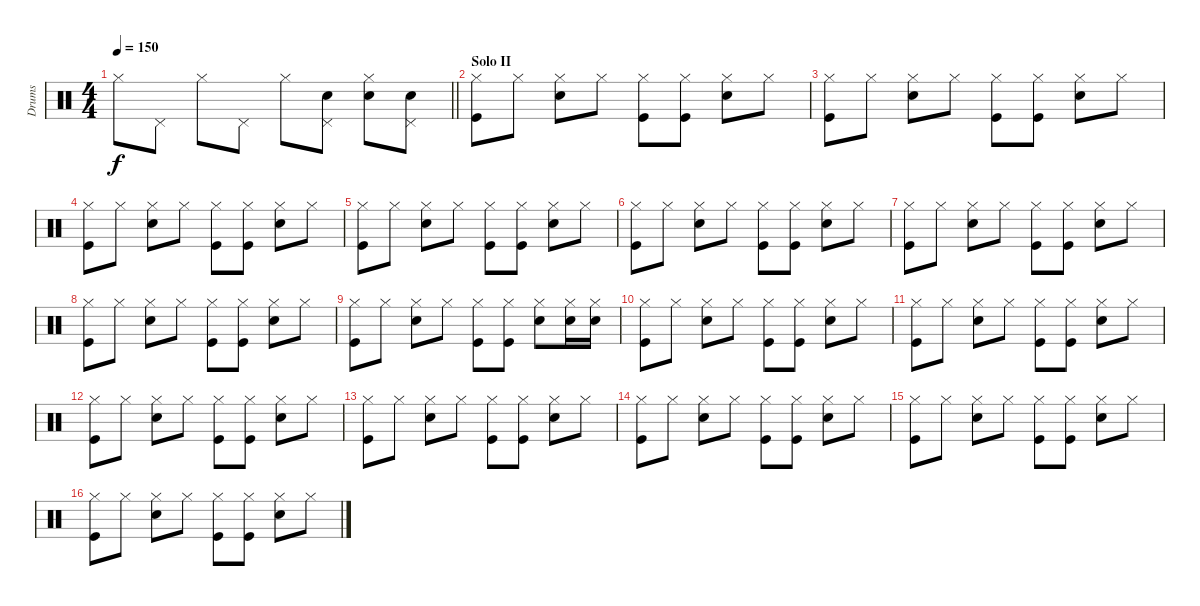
\track ("Drums" "Drums") {instrument percussion}
\staff {score}
\articulation defaults
\ts (4 4)
\tempo 150
\clef neutral
\barLineRight lightlight
\ks c "Hi-Hat (closed)".8{dy f} "Pedal Hi-Hat (hit)".8 "Hi-Hat (closed)".8 "Pedal Hi-Hat (hit)".8 "Hi-Hat (closed)".8
("Pedal Hi-Hat (hit)" "Electric Snare (hit)").8 ("Hi-Hat (closed)" "Electric Snare (hit)").8 ("Pedal Hi-Hat (hit)" "Electric Snare (hit)").8 |
\section ("" "Solo II")
("Hi-Hat (closed)" "Kick (hit)").8 "Hi-Hat (closed)".8 ("Hi-Hat (closed)" "Electric Snare (hit)").8 "Hi-Hat (closed)".8 ("Hi-Hat (closed)" "Kick (hit)").8 ("Hi-Hat (closed)" "Kick (hit)").8 ("Hi-Hat (closed)" "Electric Snare (hit)").8 "Hi-Hat (closed)".8 |
("Hi-Hat (closed)" "Kick (hit)").8 "Hi-Hat (closed)".8 ("Hi-Hat (closed)" "Electric Snare (hit)").8 "Hi-Hat (closed)".8 ("Hi-Hat (closed)" "Kick (hit)").8 ("Hi-Hat (closed)" "Kick (hit)").8 ("Hi-Hat (closed)" "Electric Snare (hit)").8 "Hi-Hat (closed)".8 |
("Hi-Hat (closed)" "Kick (hit)").8 "Hi-Hat (closed)".8 ("Hi-Hat (closed)" "Electric Snare (hit)").8 "Hi-Hat (closed)".8 ("Hi-Hat (closed)" "Kick (hit)").8 ("Hi-Hat (closed)" "Kick (hit)").8 ("Hi-Hat (closed)" "Electric Snare (hit)").8 "Hi-Hat (closed)".8 |
("Hi-Hat (closed)" "Kick (hit)").8 "Hi-Hat (closed)".8 ("Hi-Hat (closed)" "Electric Snare (hit)").8 "Hi-Hat (closed)".8 ("Hi-Hat (closed)" "Kick (hit)").8 ("Hi-Hat (closed)" "Kick (hit)").8 ("Hi-Hat (closed)" "Electric Snare (hit)").8 "Hi-Hat (closed)".8 |
("Hi-Hat (closed)" "Kick (hit)").8 "Hi-Hat (closed)".8 ("Hi-Hat (closed)" "Electric Snare (hit)").8 "Hi-Hat (closed)".8 ("Hi-Hat (closed)" "Kick (hit)").8 ("Hi-Hat (closed)" "Kick (hit)").8 ("Hi-Hat (closed)" "Electric Snare (hit)").8 "Hi-Hat (closed)".8 |
("Hi-Hat (closed)" "Kick (hit)").8 "Hi-Hat (closed)".8 ("Hi-Hat (closed)" "Electric Snare (hit)").8 "Hi-Hat (closed)".8 ("Hi-Hat (closed)" "Kick (hit)").8 ("Hi-Hat (closed)" "Kick (hit)").8 ("Hi-Hat (closed)" "Electric Snare (hit)").8 "Hi-Hat (closed)".8 |
("Hi-Hat (closed)" "Kick (hit)").8 "Hi-Hat (closed)".8 ("Hi-Hat (closed)" "Electric Snare (hit)").8 "Hi-Hat (closed)".8 ("Hi-Hat (closed)" "Kick (hit)").8 ("Hi-Hat (closed)" "Kick (hit)").8 ("Hi-Hat (closed)" "Electric Snare (hit)").8 "Hi-Hat (closed)".8 |
("Hi-Hat (closed)" "Kick (hit)").8 "Hi-Hat (closed)".8 ("Hi-Hat (closed)" "Electric Snare (hit)").8 "Hi-Hat (closed)".8 ("Hi-Hat (closed)" "Kick (hit)").8 ("Hi-Hat (closed)" "Kick (hit)").8 ("Hi-Hat (closed)" "Electric Snare (hit)").8 ("Hi-Hat (closed)" "Electric Snare (hit)").16 ("Hi-Hat (closed)" "Electric Snare (hit)").16 |
("Hi-Hat (closed)" "Kick (hit)").8 "Hi-Hat (closed)".8 ("Hi-Hat (closed)" "Electric Snare (hit)").8 "Hi-Hat (closed)".8 ("Hi-Hat (closed)" "Kick (hit)").8 ("Hi-Hat (closed)" "Kick (hit)").8 ("Hi-Hat (closed)" "Electric Snare (hit)").8 "Hi-Hat (closed)".8 |
("Hi-Hat (closed)" "Kick (hit)").8 "Hi-Hat (closed)".8 ("Hi-Hat (closed)" "Electric Snare (hit)").8 "Hi-Hat (closed)".8 ("Hi-Hat (closed)" "Kick (hit)").8 ("Hi-Hat (closed)" "Kick (hit)").8 ("Hi-Hat (closed)" "Electric Snare (hit)").8 "Hi-Hat (closed)".8 |
("Hi-Hat (closed)" "Kick (hit)").8 "Hi-Hat (closed)".8 ("Hi-Hat (closed)" "Electric Snare (hit)").8 "Hi-Hat (closed)".8 ("Hi-Hat (closed)" "Kick (hit)").8 ("Hi-Hat (closed)" "Kick (hit)").8 ("Hi-Hat (closed)" "Electric Snare (hit)").8 "Hi-Hat (closed)".8 |
("Hi-Hat (closed)" "Kick (hit)").8 "Hi-Hat (closed)".8 ("Hi-Hat (closed)" "Electric Snare (hit)").8 "Hi-Hat (closed)".8 ("Hi-Hat (closed)" "Kick (hit)").8 ("Hi-Hat (closed)" "Kick (hit)").8 ("Hi-Hat (closed)" "Electric Snare (hit)").8 "Hi-Hat (closed)".8 |
("Hi-Hat (closed)" "Kick (hit)").8 "Hi-Hat (closed)".8 ("Hi-Hat (closed)" "Electric Snare (hit)").8 "Hi-Hat (closed)".8 ("Hi-Hat (closed)" "Kick (hit)").8 ("Hi-Hat (closed)" "Kick (hit)").8 ("Hi-Hat (closed)" "Electric Snare (hit)").8 "Hi-Hat (closed)".8 |
("Hi-Hat (closed)" "Kick (hit)").8 "Hi-Hat (closed)".8 ("Hi-Hat (closed)" "Electric Snare (hit)").8 "Hi-Hat (closed)".8 ("Hi-Hat (closed)" "Kick (hit)").8 ("Hi-Hat (closed)" "Kick (hit)").8 ("Hi-Hat (closed)" "Electric Snare (hit)").8 "Hi-Hat (closed)".8 |
("Hi-Hat (closed)" "Kick (hit)").8 "Hi-Hat (closed)".8 ("Hi-Hat (closed)" "Electric Snare (hit)").8 "Hi-Hat (closed)".8 ("Hi-Hat (closed)" "Kick (hit)").8 ("Hi-Hat (closed)" "Kick (hit)").8 ("Hi-Hat (closed)" "Electric Snare (hit)").8 "Hi-Hat (closed)".8
